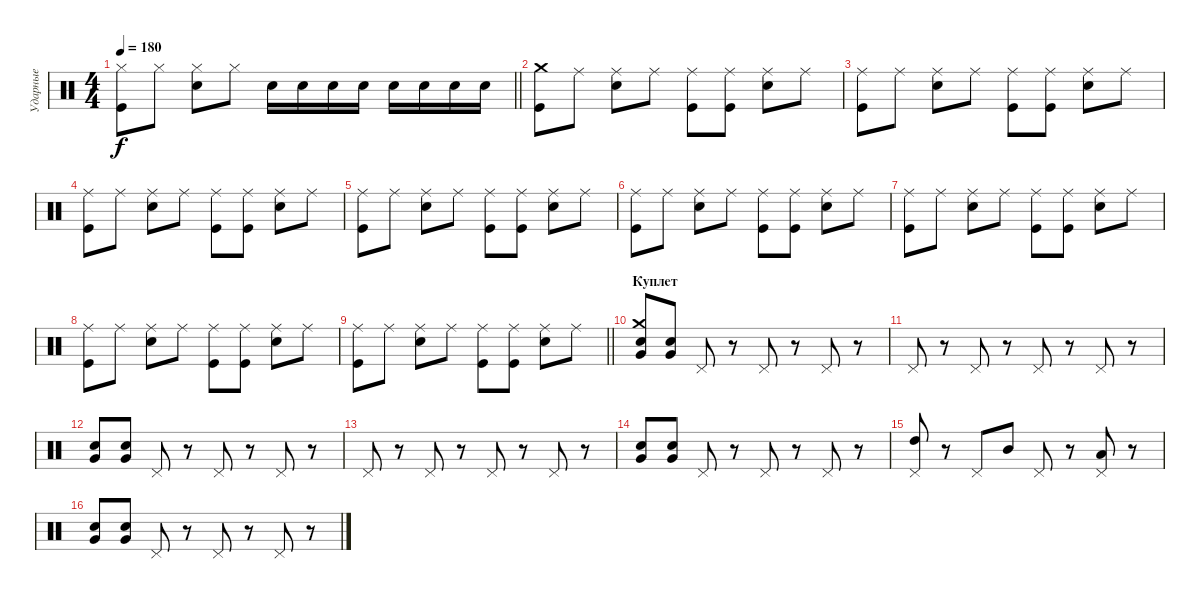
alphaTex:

\track ("Ударные" "Ударные") {instrument percussion}
\staff {score}
\articulation defaults
\ts (4 4)
\tempo 180
\clef neutral
\barLineRight lightlight
\ks c
("Hi-Hat (closed)" "Kick (hit)").8{dy f} "Hi-Hat (closed)".8 ("Hi-Hat (closed)" "Electric Snare (hit)").8 "Hi-Hat (closed)".8 "Electric Snare (hit)".16 "Electric Snare (hit)".16 "Electric Snare (hit)".16 "Electric Snare (hit)".16 "Electric Snare (hit)".16 "Electric Snare (hit)".16 "Electric Snare (hit)".16 "Electric Snare (hit)".16 |
\section ("" " ")
("Crash medium (hit)" "Kick (hit)").8 "Ride (middle)".8 ("Ride (middle)" "Electric Snare (hit)").8 "Ride (middle)".8 ("Ride (middle)" "Kick (hit)").8 ("Ride (middle)" "Kick (hit)").8 ("Ride (middle)" "Electric Snare (hit)").8 "Ride (middle)".8 |
("Ride (middle)" "Kick (hit)").8 "Ride (middle)".8 ("Ride (middle)" "Electric Snare (hit)").8 "Ride (middle)".8 ("Ride (middle)" "Kick (hit)").8 ("Ride (middle)" "Kick (hit)").8 ("Ride (middle)" "Electric Snare (hit)").8 "Ride (middle)".8 |
("Ride (middle)" "Kick (hit)").8 "Ride (middle)".8 ("Ride (middle)" "Electric Snare (hit)").8 "Ride (middle)".8 ("Ride (middle)" "Kick (hit)").8 ("Ride (middle)" "Kick (hit)").8 ("Ride (middle)" "Electric Snare (hit)").8 "Ride (middle)".8 |
("Ride (middle)" "Kick (hit)").8 "Ride (middle)".8 ("Ride (middle)" "Electric Snare (hit)").8 "Ride (middle)".8 ("Ride (middle)" "Kick (hit)").8 ("Ride (middle)" "Kick (hit)").8 ("Ride (middle)" "Electric Snare (hit)").8 "Ride (middle)".8 |
("Ride (middle)" "Kick (hit)").8 "Ride (middle)".8 ("Ride (middle)" "Electric Snare (hit)").8 "Ride (middle)".8 ("Ride (middle)" "Kick (hit)").8 ("Ride (middle)" "Kick (hit)").8 ("Ride (middle)" "Electric Snare (hit)").8 "Ride (middle)".8 |
("Ride (middle)" "Kick (hit)").8 "Ride (middle)".8 ("Ride (middle)" "Electric Snare (hit)").8 "Ride (middle)".8 ("Ride (middle)" "Kick (hit)").8 ("Ride (middle)" "Kick (hit)").8 ("Ride (middle)" "Electric Snare (hit)").8 "Ride (middle)".8 |
("Ride (middle)" "Kick (hit)").8 "Ride (middle)".8 ("Ride (middle)" "Electric Snare (hit)").8 "Ride (middle)".8 ("Ride (middle)" "Kick (hit)").8 ("Ride (middle)" "Kick (hit)").8 ("Ride (middle)" "Electric Snare (hit)").8 "Ride (middle)".8 |
\barLineRight lightlight
("Ride (middle)" "Kick (hit)").8 "Ride (middle)".8 ("Ride (middle)" "Electric Snare (hit)").8 "Ride (middle)".8 ("Ride (middle)" "Kick (hit)").8 ("Ride (middle)" "Kick (hit)").8 ("Ride (middle)" "Electric Snare (hit)").8 "Ride (middle)".8 |
\section ("" "Куплет")
("Very Low Tom (hit)" "Electric Snare (hit)" "Crash medium (hit)").8 ("Very Low Tom (hit)" "Electric Snare (hit)").8 "Pedal Hi-Hat (hit)".8 r.8 "Pedal Hi-Hat (hit)".8 r.8 "Pedal Hi-Hat (hit)".8 r.8 |
"Pedal Hi-Hat (hit)".8 r.8 "Pedal Hi-Hat (hit)".8 r.8 "Pedal Hi-Hat (hit)".8 r.8 "Pedal Hi-Hat (hit)".8 r.8 |
("Very Low Tom (hit)" "Electric Snare (hit)").8 ("Very Low Tom (hit)" "Electric Snare (hit)").8 "Pedal Hi-Hat (hit)".8 r.8 "Pedal Hi-Hat (hit)".8 r.8 "Pedal Hi-Hat (hit)".8 r.8 |
"Pedal Hi-Hat (hit)".8 r.8 "Pedal Hi-Hat (hit)".8 r.8 "Pedal Hi-Hat (hit)".8 r.8 "Pedal Hi-Hat (hit)".8 r.8 |
("Very Low Tom (hit)" "Electric Snare (hit)").8 ("Very Low Tom (hit)" "Electric Snare (hit)").8 "Pedal Hi-Hat (hit)".8 r.8 "Pedal Hi-Hat (hit)".8 r.8 "Pedal Hi-Hat (hit)".8 r.8 |
("High Tom (hit)" "Pedal Hi-Hat (hit)").8 r.8 "Pedal Hi-Hat (hit)".8 "Mid Tom (hit)".8 "Pedal Hi-Hat (hit)".8 r.8 ("Low Tom (hit)" "Pedal Hi-Hat (hit)").8 r.8 |
("Very Low Tom (hit)" "Electric Snare (hit)").8 ("Very Low Tom (hit)" "Electric Snare (hit)").8 "Pedal Hi-Hat (hit)".8 r.8 "Pedal Hi-Hat (hit)".8 r.8 "Pedal Hi-Hat (hit)".8 r.8
